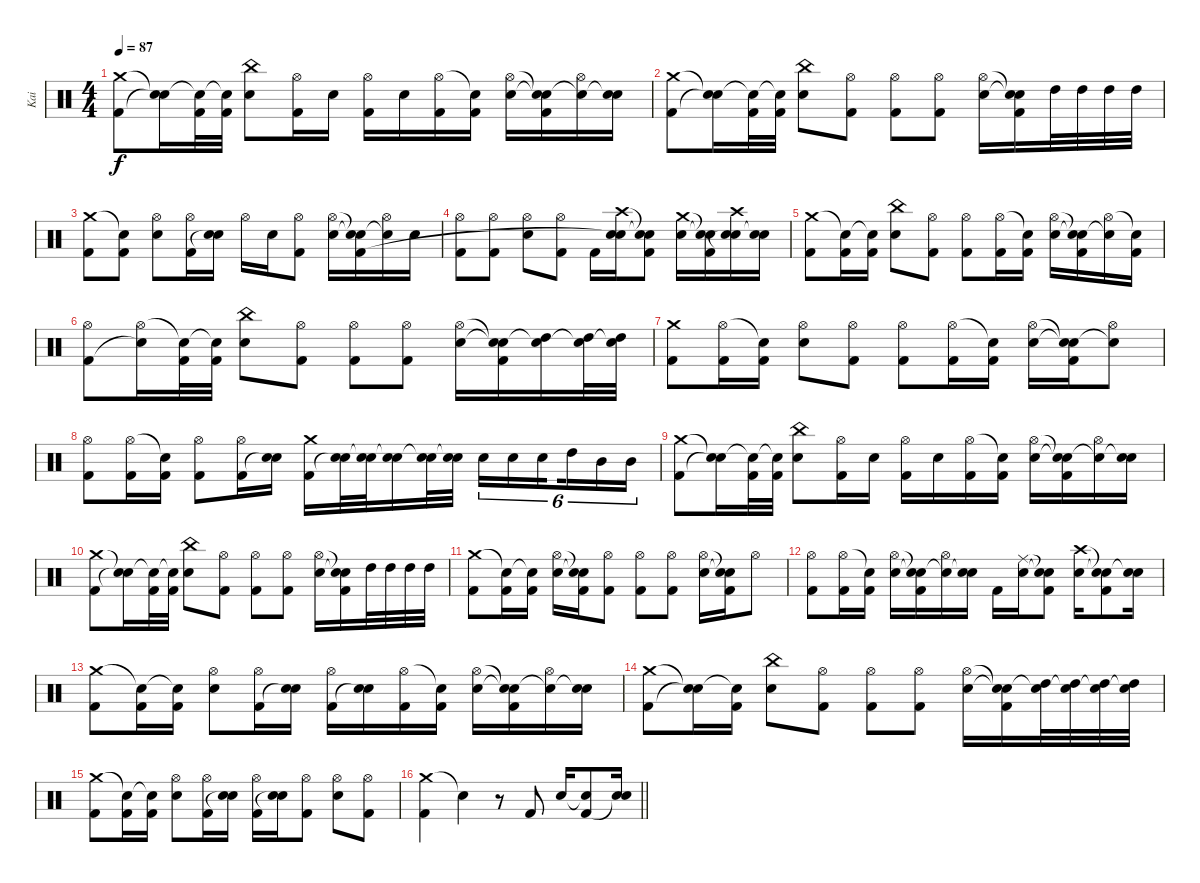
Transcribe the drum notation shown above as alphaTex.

\track ("Kai" "Kai") {instrument percussion}
\staff {score}
\articulation defaults
\ts (4 4)
\tempo 87
\clef neutral
\ks c
("Crash medium (hit)" "Kick (hit) 2").8{dy f} ("Snare (hit)"{t} "Snare (hit)"{t}).16 ("Snare (hit)"{t} "Kick (hit) 2").32 ("Snare (hit)"{t} "Kick (hit) 2").32 ("China (hit)" "Snare (hit) 2").8 ("Hi-Hat (open)" "Kick (hit) 2").16 "Snare (hit) 2".16 ("Hi-Hat (open)" "Kick (hit) 2").16 "Snare (hit) 2".16 ("Hi-Hat (open)" "Kick (hit) 2").16 ("Snare (hit)"{t} "Kick (hit) 2").16 ("Hi-Hat (open)" "Snare (hit) 2").16 ("Snare (hit)"{t} "Snare (hit)"{t} "Kick (hit) 2").16 ("Hi-Hat (open)" "Snare (hit)"{t}).16 ("Snare (hit) 2" "Snare (hit)"{t}).16 |
("Crash medium (hit)" "Kick (hit) 2").8 ("Snare (hit)"{t} "Snare (hit)"{t}).16 ("Snare (hit)"{t} "Kick (hit) 2").32 ("Snare (hit)"{t} "Kick (hit) 2").32 ("China (hit)" "Snare (hit) 2").8 ("Hi-Hat (open)" "Kick (hit) 2").8 ("Hi-Hat (open)" "Kick (hit) 2").8 ("Hi-Hat (open)" "Kick (hit) 2").8 ("Hi-Hat (open)" "Snare (hit) 2").16 ("Snare (hit)"{t} "Snare (hit)"{t} "Kick (hit) 2").16 "High Tom (hit)".32 "High Tom (hit)".32 "High Tom (hit)".32 "High Tom (hit)".32 |
("Crash medium (hit)" "Kick (hit) 2").8 ("Snare (hit)"{t} "Kick (hit) 2").8 ("Hi-Hat (open)" "Snare (hit) 2").8 ("Hi-Hat (open)" "Kick (hit) 2").16 ("Snare (hit) 2" "Snare (hit)"{t}).16 "Hi-Hat (open)".16 "Snare (hit) 2".16 ("Hi-Hat (open)" "Kick (hit) 2").8 ("Hi-Hat (open)" "Snare (hit) 2").16 ("Snare (hit)"{t} "Snare (hit)"{t} "Kick (hit) 2").16 ("Hi-Hat (open)" "Snare (hit)"{t}).16 "Snare (hit) 2".16 |
("Hi-Hat (open)" "Kick (hit) 2").8 ("Hi-Hat (open)" "Kick (hit) 2").8 ("Hi-Hat (open)" "Snare (hit) 2").8 ("Hi-Hat (open)" "Kick (hit) 2").8 "Kick (hit) 2".16 ("Crash high (hit)" "Snare (hit) 2" "Snare (hit)"{t}).16 ("Snare (hit)"{t} "Snare (hit)"{t} "Kick (hit) 2").8 ("Crash medium (hit)" "Snare (hit) 2").16 ("Snare (hit)"{t} "Snare (hit)"{t} "Kick (hit) 2").16 ("Crash high (hit)" "Snare (hit) 2" "Snare (hit)"{t}).16 ("Snare (hit) 2" "Snare (hit)"{t}).16 |
("Crash medium (hit)" "Kick (hit) 2").8 ("Snare (hit)"{t} "Kick (hit) 2").16 ("Snare (hit)"{t} "Kick (hit) 2").16 ("China (hit)" "Snare (hit) 2").8 ("Hi-Hat (open)" "Kick (hit) 2").8 ("Hi-Hat (open)" "Kick (hit) 2").8 ("Hi-Hat (open)" "Kick (hit) 2").16 ("Snare (hit)"{t} "Kick (hit) 2").16 ("Hi-Hat (open)" "Snare (hit) 2").16 ("Snare (hit)"{t} "Snare (hit)"{t} "Kick (hit) 2").16 ("Hi-Hat (open)" "Snare (hit)"{t}).16 ("Snare (hit)"{t} "Kick (hit) 2").16 |
("Hi-Hat (open)" "Kick (hit) 2").8 ("Hi-Hat (open)" "Snare (hit)"{t}).16 ("Snare (hit)"{t} "Kick (hit) 2").32 ("Snare (hit)"{t} "Kick (hit) 2").32 ("China (hit)" "Snare (hit) 2").8 ("Hi-Hat (open)" "Kick (hit) 2").8 ("Hi-Hat (open)" "Kick (hit) 2").8 ("Hi-Hat (open)" "Kick (hit) 2").8 ("Hi-Hat (open)" "Snare (hit) 2").16 ("Snare (hit)"{t} "Snare (hit)"{t} "Kick (hit) 2").16 ("High Tom (hit)" "Snare (hit)"{t}).16 ("High Tom (hit)" "Snare (hit)"{t}).32 ("High Tom (hit)" "Snare (hit)"{t}).32 |
("Crash medium (hit)" "Kick (hit) 2").8 ("Hi-Hat (open)" "Kick (hit) 2").16 ("Snare (hit)"{t} "Kick (hit) 2").16 ("Hi-Hat (open)" "Snare (hit) 2").8 ("Hi-Hat (open)" "Kick (hit) 2").8 ("Hi-Hat (open)" "Kick (hit) 2").8 ("Hi-Hat (open)" "Kick (hit) 2").16 ("Snare (hit)"{t} "Kick (hit) 2").16 ("Hi-Hat (open)" "Snare (hit) 2").16 ("Snare (hit)"{t} "Snare (hit)"{t} "Kick (hit) 2").16 ("Hi-Hat (open)" "Snare (hit)"{t}).8 |
("Hi-Hat (open)" "Kick (hit) 2").8 ("Hi-Hat (open)" "Kick (hit) 2").16 ("Snare (hit)"{t} "Kick (hit) 2").16 ("Hi-Hat (open)" "Kick (hit) 2").8 ("Hi-Hat (open)" "Kick (hit) 2").16 ("Snare (hit) 2" "Snare (hit)"{t}).16 ("Crash medium (hit)" "Kick (hit) 2").16 ("Snare (hit) 2" "Snare (hit)"{t}).32 ("Snare (hit) 2" "Snare (hit)"{t}).32 ("Snare (hit) 2" "Snare (hit)"{t}).16 ("Snare (hit) 2" "Snare (hit)"{t}).32 ("Snare (hit) 2" "Snare (hit)"{t}).32 "Snare (hit) 2".16{tu (6 4)} "Snare (hit) 2".16{tu (6 4)} "Snare (hit) 2".16{tu (6 4) beam splitsecondary} "High Tom (hit)".16{tu (6 4)} "Mid Tom (hit)".16{tu (6 4)} "Mid Tom (hit)".16{tu (6 4)} |
("Crash medium (hit)" "Kick (hit) 2").8 ("Snare (hit)"{t} "Snare (hit)"{t}).16 ("Snare (hit)"{t} "Kick (hit) 2").32 ("Snare (hit)"{t} "Kick (hit) 2").32 ("China (hit)" "Snare (hit) 2").8 ("Hi-Hat (open)" "Kick (hit) 2").16 "Snare (hit) 2".16 ("Hi-Hat (open)" "Kick (hit) 2").16 "Snare (hit) 2".16 ("Hi-Hat (open)" "Kick (hit) 2").16 ("Snare (hit)"{t} "Kick (hit) 2").16 ("Hi-Hat (open)" "Snare (hit) 2").16 ("Snare (hit)"{t} "Snare (hit)"{t} "Kick (hit) 2").16 ("Hi-Hat (open)" "Snare (hit)"{t}).16 ("Snare (hit) 2" "Snare (hit)"{t}).16 |
("Crash medium (hit)" "Kick (hit) 2").8 ("Snare (hit)"{t} "Snare (hit)"{t}).16 ("Snare (hit)"{t} "Kick (hit) 2").32 ("Snare (hit)"{t} "Kick (hit) 2").32 ("China (hit)" "Snare (hit) 2").8 ("Hi-Hat (open)" "Kick (hit) 2").8 ("Hi-Hat (open)" "Kick (hit) 2").8 ("Hi-Hat (open)" "Kick (hit) 2").8 ("Hi-Hat (open)" "Snare (hit) 2").16 ("Snare (hit)"{t} "Snare (hit)"{t} "Kick (hit) 2").16 "High Tom (hit)".32 "High Tom (hit)".32 "High Tom (hit)".32 "High Tom (hit)".32 |
("Crash medium (hit)" "Kick (hit) 2").8 ("Snare (hit)"{t} "Kick (hit) 2").16 ("Snare (hit)"{t} "Kick (hit) 2").16 ("Hi-Hat (open)" "Snare (hit) 2").16 ("Snare (hit)"{t} "Snare (hit)"{t} "Kick (hit) 2").16 ("Hi-Hat (open)" "Kick (hit) 2").8 ("Hi-Hat (open)" "Kick (hit) 2").8 ("Hi-Hat (open)" "Kick (hit) 2").8 ("Hi-Hat (open)" "Snare (hit) 2").16 ("Snare (hit)"{t} "Snare (hit)"{t} "Kick (hit) 2").16 "Hi-Hat (open)".8 |
("Hi-Hat (open)" "Kick (hit) 2").8 ("Hi-Hat (open)" "Kick (hit) 2").16 ("Snare (hit)"{t} "Kick (hit) 2").16 ("Hi-Hat (open)" "Snare (hit) 2").16 ("Snare (hit)"{t} "Snare (hit)"{t} "Kick (hit) 2").16 ("Hi-Hat (open)" "Snare (hit)"{t}).16 ("Snare (hit) 2" "Snare (hit)"{t}).16 "Kick (hit) 2".16 ("Ride (middle)" "Snare (hit) 2").16 ("Snare (hit)"{t} "Snare (hit)"{t} "Kick (hit) 2").8 ("Crash high (hit)" "Snare (hit) 2").16 ("Snare (hit)"{t} "Snare (hit)"{t} "Kick (hit) 2").8 ("Snare (hit) 2" "Snare (hit)"{t}).16 |
("Crash medium (hit)" "Kick (hit) 2").8 ("Snare (hit)"{t} "Kick (hit) 2").16 ("Snare (hit)"{t} "Kick (hit) 2").16 ("Hi-Hat (open)" "Snare (hit) 2").8 ("Hi-Hat (open)" "Kick (hit) 2").16 ("Snare (hit) 2" "Snare (hit)"{t}).16 ("Hi-Hat (open)" "Kick (hit) 2").16 ("Snare (hit) 2" "Snare (hit)"{t}).16 ("Hi-Hat (open)" "Kick (hit) 2").16 ("Snare (hit)"{t} "Kick (hit) 2").16 ("Hi-Hat (open)" "Snare (hit) 2").16 ("Snare (hit)"{t} "Snare (hit)"{t} "Kick (hit) 2").16 ("Hi-Hat (open)" "Snare (hit)"{t}).16 ("Snare (hit) 2" "Snare (hit)"{t}).16 |
("Crash medium (hit)" "Kick (hit) 2").8 ("Snare (hit)"{t} "Snare (hit)"{t}).16 ("Snare (hit)"{t} "Kick (hit) 2").16 ("China (hit)" "Snare (hit) 2").8 ("Hi-Hat (open)" "Kick (hit) 2").8 ("Hi-Hat (open)" "Kick (hit) 2").8 ("Hi-Hat (open)" "Kick (hit) 2").8 ("Hi-Hat (open)" "Snare (hit) 2").16 ("Snare (hit)"{t} "Snare (hit)"{t} "Kick (hit) 2").16 ("High Tom (hit)" "Snare (hit)"{t}).32 ("High Tom (hit)" "Snare (hit)"{t}).32 ("High Tom (hit)" "Snare (hit)"{t}).32 ("High Tom (hit)" "Snare (hit)"{t}).32 |
("Crash medium (hit)" "Kick (hit) 2").8 ("Snare (hit)"{t} "Kick (hit) 2").16 ("Snare (hit)"{t} "Kick (hit) 2").16 ("Hi-Hat (open)" "Snare (hit) 2").8 ("Hi-Hat (open)" "Kick (hit) 2").16 ("Snare (hit) 2" "Snare (hit)"{t}).16 ("Hi-Hat (open)" "Kick (hit) 2").16 ("Snare (hit) 2" "Snare (hit)"{t}).16 ("Hi-Hat (open)" "Kick (hit) 2").8 ("Hi-Hat (open)" "Snare (hit) 2").8 ("Hi-Hat (open)" "Kick (hit) 2").8 |
\barLineRight lightlight
("Crash medium (hit)" "Kick (hit) 2").4 "Snare (hit)"{t}.4 r.8 "Kick (hit) 2".8 "Snare (hit) 2".16 ("Snare (hit)"{t} "Kick (hit) 2").8 ("Snare (hit) 2" "Snare (hit)"{t}).16
